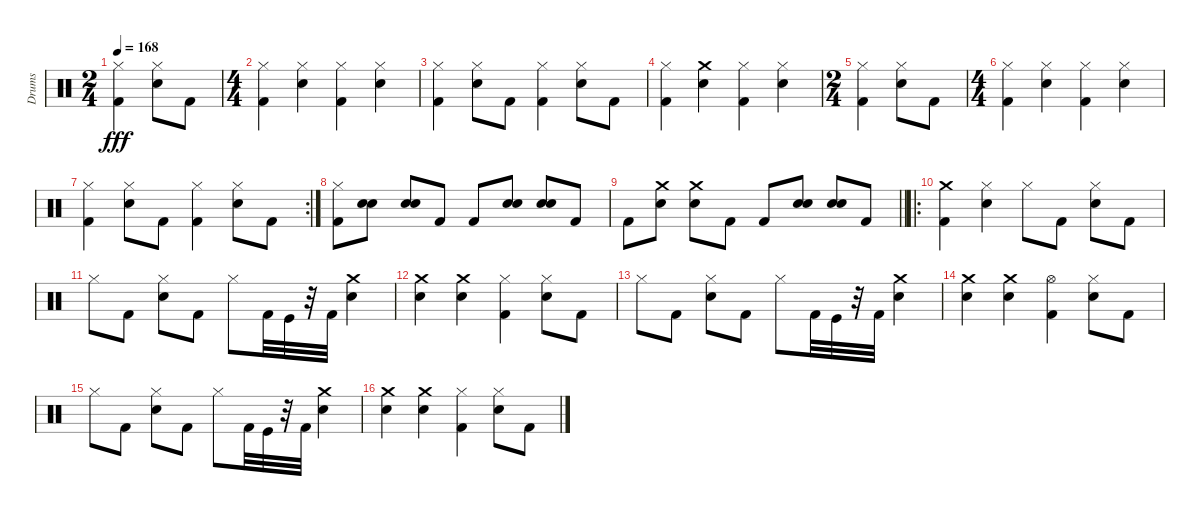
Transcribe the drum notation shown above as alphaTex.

\track ("Drums" "Drums") {instrument percussion}
\staff {score}
\articulation defaults
\ts (2 4)
\tempo 168
\clef neutral
\ks c
("Hi-Hat (closed)" "Kick (hit) 2").4{dy fff} ("Snare (hit) 2" "Hi-Hat (closed)").8 "Kick (hit) 2".8 |
\ts (4 4)
("Kick (hit) 2" "Hi-Hat (closed)").4 ("Snare (hit) 2" "Hi-Hat (closed)").4 ("Kick (hit) 2" "Hi-Hat (closed)").4 ("Snare (hit) 2" "Hi-Hat (closed)").4 |
("Hi-Hat (closed)" "Kick (hit) 2").4 ("Snare (hit) 2" "Hi-Hat (closed)").8 "Kick (hit) 2".8 ("Kick (hit) 2" "Hi-Hat (closed)").4 ("Hi-Hat (closed)" "Snare (hit) 2").8 "Kick (hit) 2".8 |
("Hi-Hat (closed)" "Kick (hit) 2").4 ("Crash medium (hit)" "Snare (hit) 2").4 ("Hi-Hat (closed)" "Kick (hit) 2").4 ("Snare (hit) 2" "Hi-Hat (closed)").4 |
\ts (2 4)
("Hi-Hat (closed)" "Kick (hit) 2").4 ("Snare (hit) 2" "Hi-Hat (closed)").8 "Kick (hit) 2".8 |
\ts (4 4)
("Kick (hit) 2" "Hi-Hat (closed)").4 ("Snare (hit) 2" "Hi-Hat (closed)").4 ("Kick (hit) 2" "Hi-Hat (closed)").4 ("Snare (hit) 2" "Hi-Hat (closed)").4 |
\rc 2
("Hi-Hat (closed)" "Kick (hit) 2").4 ("Snare (hit) 2" "Hi-Hat (closed)").8 "Kick (hit) 2".8 ("Kick (hit) 2" "Hi-Hat (closed)").4 ("Hi-Hat (closed)" "Snare (hit) 2").8 "Kick (hit) 2".8 |
("Kick (hit) 2" "Hi-Hat (closed)").8 ("Snare (hit) 2" "Snare (hit) 2").8 ("Snare (hit) 2" "Snare (hit) 2").8 "Kick (hit) 2".8 "Kick (hit) 2".8 ("Snare (hit) 2" "Snare (hit) 2").8 ("Snare (hit) 2" "Snare (hit) 2").8 "Kick (hit) 2".8 |
\barLineRight lightlight "Kick (hit) 2".8
("Snare (hit) 2" "Crash medium (hit)").8 ("Snare (hit) 2" "Crash medium (hit)").8 "Kick (hit) 2".8 "Kick (hit) 2".8 ("Snare (hit) 2" "Snare (hit) 2").8 ("Snare (hit) 2" "Snare (hit) 2").8 "Kick (hit) 2".8 |
\ro
("Kick (hit) 2" "Crash medium (hit)").4 ("Hi-Hat (closed)" "Snare (hit) 2").4 "Hi-Hat (closed)".8 "Kick (hit) 2".8 ("Snare (hit) 2" "Hi-Hat (closed)").8 "Kick (hit) 2".8 |
"Hi-Hat (closed)".8 "Kick (hit) 2".8 ("Snare (hit) 2" "Hi-Hat (closed)").8 "Kick (hit) 2".8 "Hi-Hat (closed)".8 "Kick (hit) 2".32 "Kick (hit)".32 r.32 "Kick (hit) 2".32 ("Crash medium (hit)" "Snare (hit) 2").4 |
("Crash medium (hit)" "Snare (hit) 2").4 ("Crash medium (hit)" "Snare (hit) 2").4 ("Hi-Hat (closed)" "Kick (hit) 2").4 ("Snare (hit) 2" "Hi-Hat (closed)").8 "Kick (hit) 2".8 |
"Hi-Hat (closed)".8 "Kick (hit) 2".8 ("Snare (hit) 2" "Hi-Hat (closed)").8 "Kick (hit) 2".8 "Hi-Hat (closed)".8 "Kick (hit) 2".32 "Kick (hit)".32 r.32 "Kick (hit) 2".32 ("Crash medium (hit)" "Snare (hit) 2").4 |
("Crash medium (hit)" "Snare (hit) 2").4 ("Crash medium (hit)" "Snare (hit) 2").4 ("Hi-Hat (open)" "Kick (hit) 2").4 ("Snare (hit) 2" "Hi-Hat (closed)").8 "Kick (hit) 2".8 |
"Hi-Hat (closed)".8 "Kick (hit) 2".8 ("Snare (hit) 2" "Hi-Hat (closed)").8 "Kick (hit) 2".8 "Hi-Hat (closed)".8 "Kick (hit) 2".32 "Kick (hit)".32 r.32 "Kick (hit) 2".32 ("Crash medium (hit)" "Snare (hit) 2").4 |
("Crash medium (hit)" "Snare (hit) 2").4 ("Crash medium (hit)" "Snare (hit) 2").4 ("Hi-Hat (closed)" "Kick (hit) 2").4 ("Snare (hit) 2" "Hi-Hat (closed)").8 "Kick (hit) 2".8
